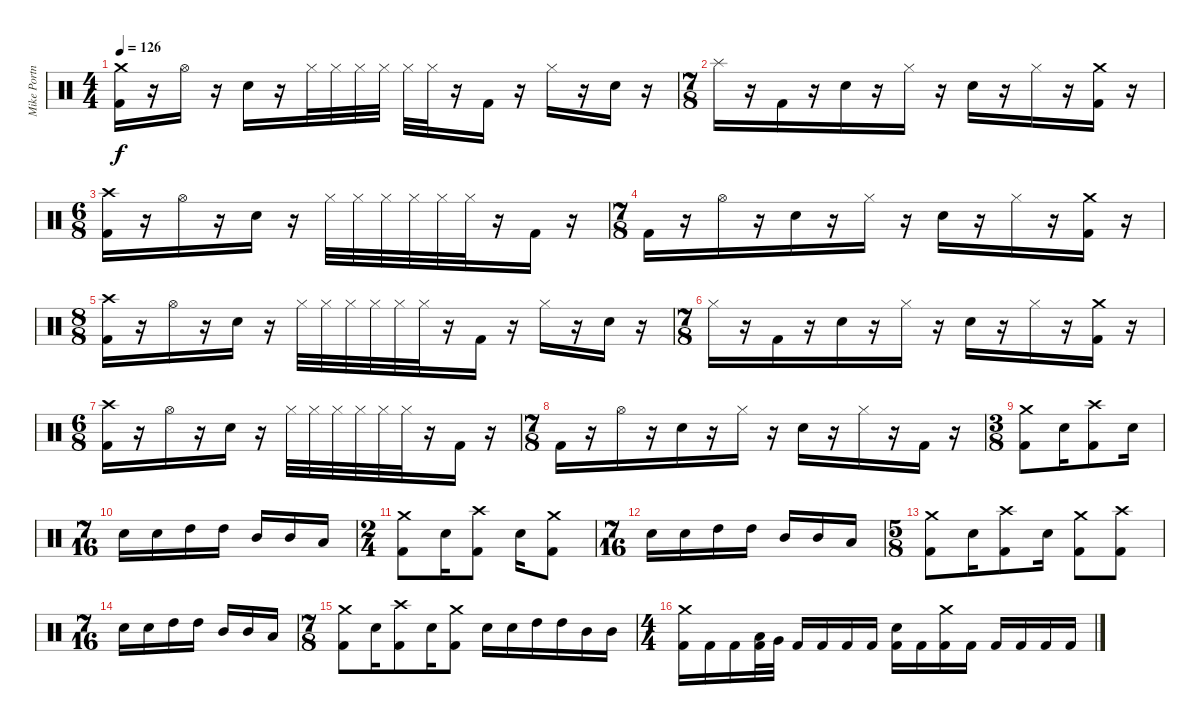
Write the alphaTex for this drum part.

\track ("Mike Portnoy" "Mike Portn") {instrument percussion}
\staff {score}
\articulation defaults
\ts (4 4)
\tempo 126
\clef neutral
\ks c
("Crash medium (hit)" "Kick (hit) 2").16{dy f} r.16 "Hi-Hat (open)".16 r.16 "Snare (hit) 2".16 r.16 "Hi-Hat (closed)".32 "Hi-Hat (closed)".32 "Hi-Hat (closed)".32 "Hi-Hat (closed)".32 "Hi-Hat (closed)".32 "Hi-Hat (closed)".32 r.16 "Kick (hit) 2".16 r.16 "Hi-Hat (closed)".16 r.16 "Snare (hit) 2".16 r.16 |
\ts (7 8)
"Splash (hit)".16 r.16 "Kick (hit) 2".16 r.16 "Snare (hit) 2".16 r.16 "Hi-Hat (closed)".16 r.16 "Snare (hit) 2".16 r.16 "Hi-Hat (closed)".16 r.16 ("Crash medium (hit)" "Kick (hit) 2").16 r.16 |
\ts (6 8)
("Crash high (hit)" "Kick (hit) 2").16 r.16 "Hi-Hat (open)".16 r.16 "Snare (hit) 2".16 r.16 "Hi-Hat (closed)".32 "Hi-Hat (closed)".32 "Hi-Hat (closed)".32 "Hi-Hat (closed)".32 "Hi-Hat (closed)".32 "Hi-Hat (closed)".32 r.16 "Kick (hit) 2".16 r.16 |
\ts (7 8)
"Kick (hit) 2".16 r.16 "Hi-Hat (open)".16 r.16 "Snare (hit) 2".16 r.16 "Hi-Hat (closed)".16 r.16 "Snare (hit) 2".16 r.16 "Hi-Hat (closed)".16 r.16 ("Crash medium (hit)" "Kick (hit) 2").16 r.16 |
\ts (8 8)
("Crash high (hit)" "Kick (hit) 2").16 r.16 "Hi-Hat (open)".16 r.16 "Snare (hit) 2".16 r.16 "Hi-Hat (closed)".32 "Hi-Hat (closed)".32 "Hi-Hat (closed)".32 "Hi-Hat (closed)".32 "Hi-Hat (closed)".32 "Hi-Hat (closed)".32 r.16 "Kick (hit) 2".16 r.16 "Hi-Hat (closed)".16 r.16 "Snare (hit) 2".16 r.16 |
\ts (7 8)
"Hi-Hat (closed)".16 r.16 "Kick (hit) 2".16 r.16 "Snare (hit) 2".16 r.16 "Hi-Hat (closed)".16 r.16 "Snare (hit) 2".16 r.16 "Hi-Hat (closed)".16 r.16 ("Crash medium (hit)" "Kick (hit) 2").16 r.16 |
\ts (6 8)
("Crash high (hit)" "Kick (hit) 2").16 r.16 "Hi-Hat (open)".16 r.16 "Snare (hit) 2".16 r.16 "Hi-Hat (closed)".32 "Hi-Hat (closed)".32 "Hi-Hat (closed)".32 "Hi-Hat (closed)".32 "Hi-Hat (closed)".32 "Hi-Hat (closed)".32 r.16 "Kick (hit) 2".16 r.16 |
\ts (7 8)
"Kick (hit) 2".16 r.16 "Hi-Hat (open)".16 r.16 "Snare (hit) 2".16 r.16 "Hi-Hat (closed)".16 r.16 "Snare (hit) 2".16 r.16 "Hi-Hat (closed)".16 r.16 "Kick (hit) 2".16 r.16 |
\ts (3 8)
("Crash medium (hit)" "Kick (hit) 2").8 "Snare (hit) 2".16 ("Crash high (hit)" "Kick (hit) 2").8 "Snare (hit) 2".16 |
\ts (7 16)
"Snare (hit) 2".16 "Snare (hit) 2".16 "High Tom (hit)".16 "High Tom (hit)".16 "Mid Tom (hit)".16 "Mid Tom (hit)".16 "Low Tom (hit)".16 |
\ts (2 4)
("Crash medium (hit)" "Kick (hit) 2").8 "Snare (hit) 2".16 ("Crash high (hit)" "Kick (hit) 2").8 "Snare (hit) 2".16 ("Crash medium (hit)" "Kick (hit) 2").8 |
\ts (7 16)
"Snare (hit) 2".16 "Snare (hit) 2".16 "High Tom (hit)".16 "High Tom (hit)".16 "Mid Tom (hit)".16 "Mid Tom (hit)".16 "Low Tom (hit)".16 |
\ts (5 8)
("Crash medium (hit)" "Kick (hit) 2").8 "Snare (hit) 2".16 ("Crash high (hit)" "Kick (hit) 2").8 "Snare (hit) 2".16 ("Crash medium (hit)" "Kick (hit) 2").8 ("Crash high (hit)" "Kick (hit) 2").8 |
\ts (7 16)
"Snare (hit) 2".16 "Snare (hit) 2".16 "High Tom (hit)".16 "High Tom (hit)".16 "Mid Tom (hit)".16 "Mid Tom (hit)".16 "Low Tom (hit)".16 |
\ts (7 8)
("Crash medium (hit)" "Kick (hit) 2").8 "Snare (hit) 2".16 ("Crash high (hit)" "Kick (hit) 2").8 "Snare (hit) 2".16 ("Crash medium (hit)" "Kick (hit) 2").8 "Snare (hit) 2".16 "Snare (hit) 2".16 "High Tom (hit)".16 "High Tom (hit)".16 "Mid Tom (hit)".16 "Mid Tom (hit)".16 |
\ts (4 4)
("Crash medium (hit)" "Kick (hit) 2").16 "Kick (hit) 2".16 "Kick (hit) 2".16 ("Low Tom (hit)" "Kick (hit) 2").32 "Very Low Tom (hit)".32 "Kick (hit) 2".16 "Kick (hit) 2".16 "Kick (hit) 2".16 "Kick (hit) 2".16 ("Snare (hit) 2" "Kick (hit) 2").16 "Kick (hit) 2".16 ("Crash medium (hit)" "Kick (hit) 2").16 "Kick (hit) 2".16 "Kick (hit) 2".16 "Kick (hit) 2".16 "Kick (hit) 2".16 "Kick (hit) 2".16
